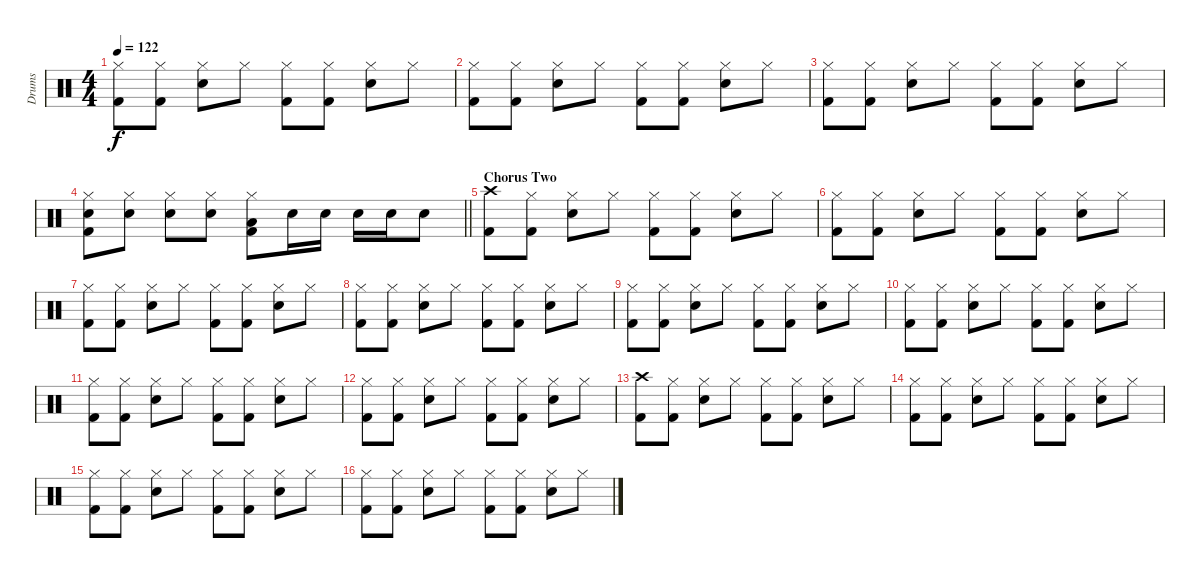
\track ("Drums" "Drums") {instrument percussion}
\staff {score}
\articulation defaults
\ts (4 4)
\tempo 122
\clef neutral
\ks c
("Hi-Hat (closed)" "Kick (hit) 2").8{dy f} ("Hi-Hat (closed)" "Kick (hit) 2").8 ("Hi-Hat (closed)" "Snare (hit) 2").8 "Hi-Hat (closed)".8 ("Hi-Hat (closed)" "Kick (hit) 2").8 ("Hi-Hat (closed)" "Kick (hit) 2").8 ("Hi-Hat (closed)" "Snare (hit) 2").8 "Hi-Hat (closed)".8 |
("Hi-Hat (closed)" "Kick (hit) 2").8 ("Hi-Hat (closed)" "Kick (hit) 2").8 ("Hi-Hat (closed)" "Snare (hit) 2").8 "Hi-Hat (closed)".8 ("Hi-Hat (closed)" "Kick (hit) 2").8 ("Hi-Hat (closed)" "Kick (hit) 2").8 ("Hi-Hat (closed)" "Snare (hit) 2").8 "Hi-Hat (closed)".8 |
("Hi-Hat (closed)" "Kick (hit) 2").8 ("Hi-Hat (closed)" "Kick (hit) 2").8 ("Hi-Hat (closed)" "Snare (hit) 2").8 "Hi-Hat (closed)".8 ("Hi-Hat (closed)" "Kick (hit) 2").8 ("Hi-Hat (closed)" "Kick (hit) 2").8 ("Hi-Hat (closed)" "Snare (hit) 2").8 "Hi-Hat (closed)".8 |
\barLineRight lightlight
("Hi-Hat (closed)" "Snare (hit) 2" "Kick (hit) 2").8 ("Hi-Hat (closed)" "Snare (hit) 2").8 ("Hi-Hat (closed)" "Snare (hit) 2").8 ("Hi-Hat (closed)" "Snare (hit) 2").8 ("Hi-Hat (closed)" "Low Tom (hit)" "Kick (hit) 2").8 "Snare (hit) 2".16 "Snare (hit) 2".16 "Snare (hit) 2".16 "Snare (hit) 2".16 "Snare (hit) 2".8 |
\section ("" "Chorus Two")
("Crash high (hit)" "Kick (hit) 2").8 ("Hi-Hat (closed)" "Kick (hit) 2").8 ("Hi-Hat (closed)" "Snare (hit) 2").8 "Hi-Hat (closed)".8 ("Hi-Hat (closed)" "Kick (hit) 2").8 ("Hi-Hat (closed)" "Kick (hit) 2").8 ("Hi-Hat (closed)" "Snare (hit) 2").8 "Hi-Hat (closed)".8 |
("Hi-Hat (closed)" "Kick (hit) 2").8 ("Hi-Hat (closed)" "Kick (hit) 2").8 ("Hi-Hat (closed)" "Snare (hit) 2").8 "Hi-Hat (closed)".8 ("Hi-Hat (closed)" "Kick (hit) 2").8 ("Hi-Hat (closed)" "Kick (hit) 2").8 ("Hi-Hat (closed)" "Snare (hit) 2").8 "Hi-Hat (closed)".8 |
("Hi-Hat (closed)" "Kick (hit) 2").8 ("Hi-Hat (closed)" "Kick (hit) 2").8 ("Hi-Hat (closed)" "Snare (hit) 2").8 "Hi-Hat (closed)".8 ("Hi-Hat (closed)" "Kick (hit) 2").8 ("Hi-Hat (closed)" "Kick (hit) 2").8 ("Hi-Hat (closed)" "Snare (hit) 2").8 "Hi-Hat (closed)".8 |
("Hi-Hat (closed)" "Kick (hit) 2").8 ("Hi-Hat (closed)" "Kick (hit) 2").8 ("Hi-Hat (closed)" "Snare (hit) 2").8 "Hi-Hat (closed)".8 ("Hi-Hat (closed)" "Kick (hit) 2").8 ("Hi-Hat (closed)" "Kick (hit) 2").8 ("Hi-Hat (closed)" "Snare (hit) 2").8 "Hi-Hat (closed)".8 |
("Hi-Hat (closed)" "Kick (hit) 2").8 ("Hi-Hat (closed)" "Kick (hit) 2").8 ("Hi-Hat (closed)" "Snare (hit) 2").8 "Hi-Hat (closed)".8 ("Hi-Hat (closed)" "Kick (hit) 2").8 ("Hi-Hat (closed)" "Kick (hit) 2").8 ("Hi-Hat (closed)" "Snare (hit) 2").8 "Hi-Hat (closed)".8 |
("Hi-Hat (closed)" "Kick (hit) 2").8 ("Hi-Hat (closed)" "Kick (hit) 2").8 ("Hi-Hat (closed)" "Snare (hit) 2").8 "Hi-Hat (closed)".8 ("Hi-Hat (closed)" "Kick (hit) 2").8 ("Hi-Hat (closed)" "Kick (hit) 2").8 ("Hi-Hat (closed)" "Snare (hit) 2").8 "Hi-Hat (closed)".8 |
("Hi-Hat (closed)" "Kick (hit) 2").8 ("Hi-Hat (closed)" "Kick (hit) 2").8 ("Hi-Hat (closed)" "Snare (hit) 2").8 "Hi-Hat (closed)".8 ("Hi-Hat (closed)" "Kick (hit) 2").8 ("Hi-Hat (closed)" "Kick (hit) 2").8 ("Hi-Hat (closed)" "Snare (hit) 2").8 "Hi-Hat (closed)".8 |
("Hi-Hat (closed)" "Kick (hit) 2").8 ("Hi-Hat (closed)" "Kick (hit) 2").8 ("Hi-Hat (closed)" "Snare (hit) 2").8 "Hi-Hat (closed)".8 ("Hi-Hat (closed)" "Kick (hit) 2").8 ("Hi-Hat (closed)" "Kick (hit) 2").8 ("Hi-Hat (closed)" "Snare (hit) 2").8 "Hi-Hat (closed)".8 |
("Crash high (hit)" "Kick (hit) 2").8 ("Hi-Hat (closed)" "Kick (hit) 2").8 ("Hi-Hat (closed)" "Snare (hit) 2").8 "Hi-Hat (closed)".8 ("Hi-Hat (closed)" "Kick (hit) 2").8 ("Hi-Hat (closed)" "Kick (hit) 2").8 ("Hi-Hat (closed)" "Snare (hit) 2").8 "Hi-Hat (closed)".8 |
("Hi-Hat (closed)" "Kick (hit) 2").8 ("Hi-Hat (closed)" "Kick (hit) 2").8 ("Hi-Hat (closed)" "Snare (hit) 2").8 "Hi-Hat (closed)".8 ("Hi-Hat (closed)" "Kick (hit) 2").8 ("Hi-Hat (closed)" "Kick (hit) 2").8 ("Hi-Hat (closed)" "Snare (hit) 2").8 "Hi-Hat (closed)".8 |
("Hi-Hat (closed)" "Kick (hit) 2").8 ("Hi-Hat (closed)" "Kick (hit) 2").8 ("Hi-Hat (closed)" "Snare (hit) 2").8 "Hi-Hat (closed)".8 ("Hi-Hat (closed)" "Kick (hit) 2").8 ("Hi-Hat (closed)" "Kick (hit) 2").8 ("Hi-Hat (closed)" "Snare (hit) 2").8 "Hi-Hat (closed)".8 |
("Hi-Hat (closed)" "Kick (hit) 2").8 ("Hi-Hat (closed)" "Kick (hit) 2").8 ("Hi-Hat (closed)" "Snare (hit) 2").8 "Hi-Hat (closed)".8 ("Hi-Hat (closed)" "Kick (hit) 2").8 ("Hi-Hat (closed)" "Kick (hit) 2").8 ("Hi-Hat (closed)" "Snare (hit) 2").8 "Hi-Hat (closed)".8
